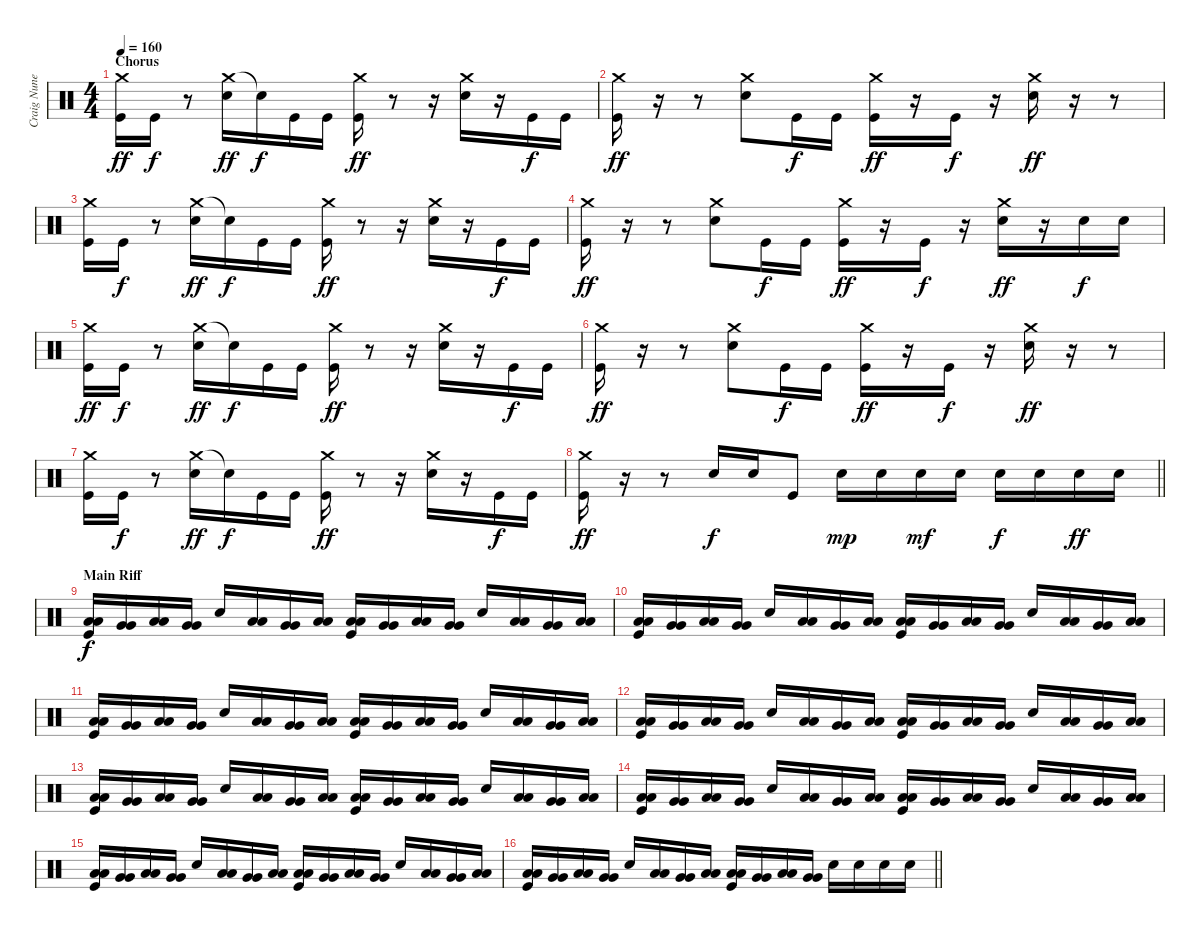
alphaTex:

\track ("Craig Nunenmacher" "Craig Nune") {instrument percussion}
\staff {score}
\articulation defaults
\ts (4 4)
\section ("" "Chorus")
\tempo 160
\clef neutral
\ks c
("Crash medium (hit)" "Kick (hit)").16{dy ff} "Kick (hit)".16{dy f} r.8 ("Crash medium (hit)" "Snare (hit) 2").16{dy ff} "Snare (hit)"{t}.16{dy f} "Kick (hit)".16 "Kick (hit)".16 ("Crash medium (hit)" "Kick (hit)").16{dy ff} r.8 r.16 ("Crash medium (hit)" "Snare (hit) 2").16 r.16 "Kick (hit)".16{dy f} "Kick (hit)".16 |
("Crash medium (hit)" "Kick (hit)").16{dy ff} r.16 r.8 ("Crash medium (hit)" "Snare (hit) 2").8 "Kick (hit)".16{dy f} "Kick (hit)".16 ("Crash medium (hit)" "Kick (hit)").16{dy ff} r.16 "Kick (hit)".16{dy f} r.16 ("Crash medium (hit)" "Snare (hit) 2").16{dy ff} r.16 r.8 |
("Crash medium (hit)" "Kick (hit)").16 "Kick (hit)".16{dy f} r.8 ("Crash medium (hit)" "Snare (hit) 2").16{dy ff} "Snare (hit)"{t}.16{dy f} "Kick (hit)".16 "Kick (hit)".16 ("Crash medium (hit)" "Kick (hit)").16{dy ff} r.8 r.16 ("Crash medium (hit)" "Snare (hit) 2").16 r.16 "Kick (hit)".16{dy f} "Kick (hit)".16 |
("Crash medium (hit)" "Kick (hit)").16{dy ff} r.16 r.8 ("Crash medium (hit)" "Snare (hit) 2").8 "Kick (hit)".16{dy f} "Kick (hit)".16 ("Crash medium (hit)" "Kick (hit)").16{dy ff} r.16 "Kick (hit)".16{dy f} r.16 ("Crash medium (hit)" "Snare (hit) 2").16{dy ff} r.16 "Snare (hit) 2".16{dy f} "Snare (hit) 2".16 |
("Crash medium (hit)" "Kick (hit)").16{dy ff} "Kick (hit)".16{dy f} r.8 ("Crash medium (hit)" "Snare (hit) 2").16{dy ff} "Snare (hit)"{t}.16{dy f} "Kick (hit)".16 "Kick (hit)".16 ("Crash medium (hit)" "Kick (hit)").16{dy ff} r.8 r.16 ("Crash medium (hit)" "Snare (hit) 2").16 r.16 "Kick (hit)".16{dy f} "Kick (hit)".16 |
("Crash medium (hit)" "Kick (hit)").16{dy ff} r.16 r.8 ("Crash medium (hit)" "Snare (hit) 2").8 "Kick (hit)".16{dy f} "Kick (hit)".16 ("Crash medium (hit)" "Kick (hit)").16{dy ff} r.16 "Kick (hit)".16{dy f} r.16 ("Crash medium (hit)" "Snare (hit) 2").16{dy ff} r.16 r.8 |
("Crash medium (hit)" "Kick (hit)").16 "Kick (hit)".16{dy f} r.8 ("Crash medium (hit)" "Snare (hit) 2").16{dy ff} "Snare (hit)"{t}.16{dy f} "Kick (hit)".16 "Kick (hit)".16 ("Crash medium (hit)" "Kick (hit)").16{dy ff} r.8 r.16 ("Crash medium (hit)" "Snare (hit) 2").16 r.16 "Kick (hit)".16{dy f} "Kick (hit)".16 |
\barLineRight lightlight
("Crash medium (hit)" "Kick (hit)").16{dy ff} r.16 r.8 "Snare (hit) 2".16{dy f} "Snare (hit) 2".16 "Kick (hit)".8 "Snare (hit) 2".16{dy mp} "Snare (hit) 2".16 "Snare (hit) 2".16{dy mf} "Snare (hit) 2".16 "Snare (hit) 2".16{dy f} "Snare (hit) 2".16 "Snare (hit) 2".16{dy ff} "Snare (hit) 2".16 |
\section ("" "Main Riff")
("Low Tom (hit)" "Low Tom (hit)" "Kick (hit)").16{dy f} ("Very Low Tom (hit)" "Very Low Tom (hit)").16 ("Low Tom (hit)" "Low Tom (hit)").16 ("Very Low Tom (hit)" "Very Low Tom (hit)").16 "Snare (hit) 2".16 ("Low Tom (hit)" "Low Tom (hit)").16 ("Very Low Tom (hit)" "Very Low Tom (hit)").16 ("Low Tom (hit)" "Low Tom (hit)").16 ("Low Tom (hit)" "Low Tom (hit)" "Kick (hit)").16 ("Very Low Tom (hit)" "Very Low Tom (hit)").16 ("Low Tom (hit)" "Low Tom (hit)").16 ("Very Low Tom (hit)" "Very Low Tom (hit)").16 "Snare (hit) 2".16 ("Low Tom (hit)" "Low Tom (hit)").16 ("Very Low Tom (hit)" "Very Low Tom (hit)").16 ("Low Tom (hit)" "Low Tom (hit)").16 |
("Low Tom (hit)" "Low Tom (hit)" "Kick (hit)").16 ("Very Low Tom (hit)" "Very Low Tom (hit)").16 ("Low Tom (hit)" "Low Tom (hit)").16 ("Very Low Tom (hit)" "Very Low Tom (hit)").16 "Snare (hit) 2".16 ("Low Tom (hit)" "Low Tom (hit)").16 ("Very Low Tom (hit)" "Very Low Tom (hit)").16 ("Low Tom (hit)" "Low Tom (hit)").16 ("Low Tom (hit)" "Low Tom (hit)" "Kick (hit)").16 ("Very Low Tom (hit)" "Very Low Tom (hit)").16 ("Low Tom (hit)" "Low Tom (hit)").16 ("Very Low Tom (hit)" "Very Low Tom (hit)").16 "Snare (hit) 2".16 ("Low Tom (hit)" "Low Tom (hit)").16 ("Very Low Tom (hit)" "Very Low Tom (hit)").16 ("Low Tom (hit)" "Low Tom (hit)").16 |
("Low Tom (hit)" "Low Tom (hit)" "Kick (hit)").16 ("Very Low Tom (hit)" "Very Low Tom (hit)").16 ("Low Tom (hit)" "Low Tom (hit)").16 ("Very Low Tom (hit)" "Very Low Tom (hit)").16 "Snare (hit) 2".16 ("Low Tom (hit)" "Low Tom (hit)").16 ("Very Low Tom (hit)" "Very Low Tom (hit)").16 ("Low Tom (hit)" "Low Tom (hit)").16 ("Low Tom (hit)" "Low Tom (hit)" "Kick (hit)").16 ("Very Low Tom (hit)" "Very Low Tom (hit)").16 ("Low Tom (hit)" "Low Tom (hit)").16 ("Very Low Tom (hit)" "Very Low Tom (hit)").16 "Snare (hit) 2".16 ("Low Tom (hit)" "Low Tom (hit)").16 ("Very Low Tom (hit)" "Very Low Tom (hit)").16 ("Low Tom (hit)" "Low Tom (hit)").16 |
("Low Tom (hit)" "Low Tom (hit)" "Kick (hit)").16 ("Very Low Tom (hit)" "Very Low Tom (hit)").16 ("Low Tom (hit)" "Low Tom (hit)").16 ("Very Low Tom (hit)" "Very Low Tom (hit)").16 "Snare (hit) 2".16 ("Low Tom (hit)" "Low Tom (hit)").16 ("Very Low Tom (hit)" "Very Low Tom (hit)").16 ("Low Tom (hit)" "Low Tom (hit)").16 ("Low Tom (hit)" "Low Tom (hit)" "Kick (hit)").16 ("Very Low Tom (hit)" "Very Low Tom (hit)").16 ("Low Tom (hit)" "Low Tom (hit)").16 ("Very Low Tom (hit)" "Very Low Tom (hit)").16 "Snare (hit) 2".16 ("Low Tom (hit)" "Low Tom (hit)").16 ("Very Low Tom (hit)" "Very Low Tom (hit)").16 ("Low Tom (hit)" "Low Tom (hit)").16 |
("Low Tom (hit)" "Low Tom (hit)" "Kick (hit)").16 ("Very Low Tom (hit)" "Very Low Tom (hit)").16 ("Low Tom (hit)" "Low Tom (hit)").16 ("Very Low Tom (hit)" "Very Low Tom (hit)").16 "Snare (hit) 2".16 ("Low Tom (hit)" "Low Tom (hit)").16 ("Very Low Tom (hit)" "Very Low Tom (hit)").16 ("Low Tom (hit)" "Low Tom (hit)").16 ("Low Tom (hit)" "Low Tom (hit)" "Kick (hit)").16 ("Very Low Tom (hit)" "Very Low Tom (hit)").16 ("Low Tom (hit)" "Low Tom (hit)").16 ("Very Low Tom (hit)" "Very Low Tom (hit)").16 "Snare (hit) 2".16 ("Low Tom (hit)" "Low Tom (hit)").16 ("Very Low Tom (hit)" "Very Low Tom (hit)").16 ("Low Tom (hit)" "Low Tom (hit)").16 |
("Low Tom (hit)" "Low Tom (hit)" "Kick (hit)").16 ("Very Low Tom (hit)" "Very Low Tom (hit)").16 ("Low Tom (hit)" "Low Tom (hit)").16 ("Very Low Tom (hit)" "Very Low Tom (hit)").16 "Snare (hit) 2".16 ("Low Tom (hit)" "Low Tom (hit)").16 ("Very Low Tom (hit)" "Very Low Tom (hit)").16 ("Low Tom (hit)" "Low Tom (hit)").16 ("Low Tom (hit)" "Low Tom (hit)" "Kick (hit)").16 ("Very Low Tom (hit)" "Very Low Tom (hit)").16 ("Low Tom (hit)" "Low Tom (hit)").16 ("Very Low Tom (hit)" "Very Low Tom (hit)").16 "Snare (hit) 2".16 ("Low Tom (hit)" "Low Tom (hit)").16 ("Very Low Tom (hit)" "Very Low Tom (hit)").16 ("Low Tom (hit)" "Low Tom (hit)").16 |
("Low Tom (hit)" "Low Tom (hit)" "Kick (hit)").16 ("Very Low Tom (hit)" "Very Low Tom (hit)").16 ("Low Tom (hit)" "Low Tom (hit)").16 ("Very Low Tom (hit)" "Very Low Tom (hit)").16 "Snare (hit) 2".16 ("Low Tom (hit)" "Low Tom (hit)").16 ("Very Low Tom (hit)" "Very Low Tom (hit)").16 ("Low Tom (hit)" "Low Tom (hit)").16 ("Low Tom (hit)" "Low Tom (hit)" "Kick (hit)").16 ("Very Low Tom (hit)" "Very Low Tom (hit)").16 ("Low Tom (hit)" "Low Tom (hit)").16 ("Very Low Tom (hit)" "Very Low Tom (hit)").16 "Snare (hit) 2".16 ("Low Tom (hit)" "Low Tom (hit)").16 ("Very Low Tom (hit)" "Very Low Tom (hit)").16 ("Low Tom (hit)" "Low Tom (hit)").16 |
\barLineRight lightlight
("Low Tom (hit)" "Low Tom (hit)" "Kick (hit)").16 ("Very Low Tom (hit)" "Very Low Tom (hit)").16 ("Low Tom (hit)" "Low Tom (hit)").16 ("Very Low Tom (hit)" "Very Low Tom (hit)").16 "Snare (hit) 2".16 ("Low Tom (hit)" "Low Tom (hit)").16 ("Very Low Tom (hit)" "Very Low Tom (hit)").16 ("Low Tom (hit)" "Low Tom (hit)").16 ("Low Tom (hit)" "Low Tom (hit)" "Kick (hit)").16 ("Very Low Tom (hit)" "Very Low Tom (hit)").16 ("Low Tom (hit)" "Low Tom (hit)").16 ("Very Low Tom (hit)" "Very Low Tom (hit)").16 "Snare (hit) 2".16 "Snare (hit) 2".16 "Snare (hit) 2".16 "Snare (hit) 2".16
